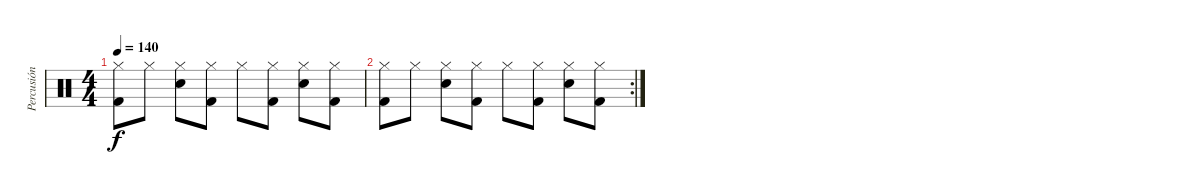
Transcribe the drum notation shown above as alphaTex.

\track ("Percusión" "Percusión") {instrument percussion}
\staff {score}
\articulation defaults
\ts (4 4)
\tempo 140
\clef neutral
\ks c
("Hi-Hat (closed)" "Kick (hit) 2").8{dy f} "Hi-Hat (closed)".8 ("Hi-Hat (closed)" "Snare (hit) 2").8 ("Hi-Hat (closed)" "Kick (hit) 2").8 "Hi-Hat (closed)".8 ("Hi-Hat (closed)" "Kick (hit) 2").8 ("Hi-Hat (closed)" "Snare (hit) 2").8 ("Hi-Hat (closed)" "Kick (hit) 2").8 |
\rc 2
("Hi-Hat (closed)" "Kick (hit) 2").8 "Hi-Hat (closed)".8 ("Hi-Hat (closed)" "Snare (hit) 2").8 ("Hi-Hat (closed)" "Kick (hit) 2").8 "Hi-Hat (closed)".8 ("Hi-Hat (closed)" "Kick (hit) 2").8 ("Hi-Hat (closed)" "Snare (hit) 2").8 ("Hi-Hat (closed)" "Kick (hit) 2").8
